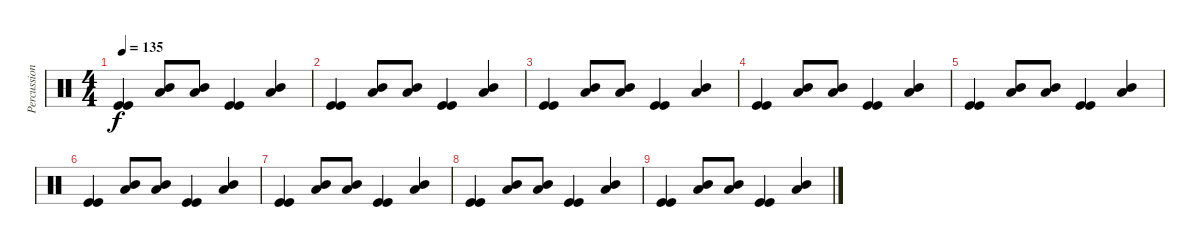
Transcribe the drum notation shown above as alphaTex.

\track ("Percussions" "Percussion") {instrument percussion}
\staff {score}
\articulation defaults
\ts (4 4)
\tempo 135
\clef neutral
\ks c
("Kick (hit)" "Kick (hit)").4{dy f} ("Low Tom (hit)" "Mid Tom (hit)").8 ("Low Tom (hit)" "Mid Tom (hit)").8 ("Kick (hit)" "Kick (hit)").4 ("Low Tom (hit)" "Mid Tom (hit)").4 |
("Kick (hit)" "Kick (hit)").4 ("Low Tom (hit)" "Mid Tom (hit)").8 ("Low Tom (hit)" "Mid Tom (hit)").8 ("Kick (hit)" "Kick (hit)").4 ("Low Tom (hit)" "Mid Tom (hit)").4 |
("Kick (hit)" "Kick (hit)").4 ("Low Tom (hit)" "Mid Tom (hit)").8 ("Low Tom (hit)" "Mid Tom (hit)").8 ("Kick (hit)" "Kick (hit)").4 ("Low Tom (hit)" "Mid Tom (hit)").4 |
("Kick (hit)" "Kick (hit)").4 ("Low Tom (hit)" "Mid Tom (hit)").8 ("Low Tom (hit)" "Mid Tom (hit)").8 ("Kick (hit)" "Kick (hit)").4 ("Low Tom (hit)" "Mid Tom (hit)").4 |
("Kick (hit)" "Kick (hit)").4 ("Low Tom (hit)" "Mid Tom (hit)").8 ("Low Tom (hit)" "Mid Tom (hit)").8 ("Kick (hit)" "Kick (hit)").4 ("Low Tom (hit)" "Mid Tom (hit)").4 |
("Kick (hit)" "Kick (hit)").4 ("Low Tom (hit)" "Mid Tom (hit)").8 ("Low Tom (hit)" "Mid Tom (hit)").8 ("Kick (hit)" "Kick (hit)").4 ("Low Tom (hit)" "Mid Tom (hit)").4 |
("Kick (hit)" "Kick (hit)").4 ("Low Tom (hit)" "Mid Tom (hit)").8 ("Low Tom (hit)" "Mid Tom (hit)").8 ("Kick (hit)" "Kick (hit)").4 ("Low Tom (hit)" "Mid Tom (hit)").4 |
("Kick (hit)" "Kick (hit)").4 ("Low Tom (hit)" "Mid Tom (hit)").8 ("Low Tom (hit)" "Mid Tom (hit)").8 ("Kick (hit)" "Kick (hit)").4 ("Low Tom (hit)" "Mid Tom (hit)").4 |
("Kick (hit)" "Kick (hit)").4 ("Low Tom (hit)" "Mid Tom (hit)").8 ("Low Tom (hit)" "Mid Tom (hit)").8 ("Kick (hit)" "Kick (hit)").4 ("Low Tom (hit)" "Mid Tom (hit)").4
